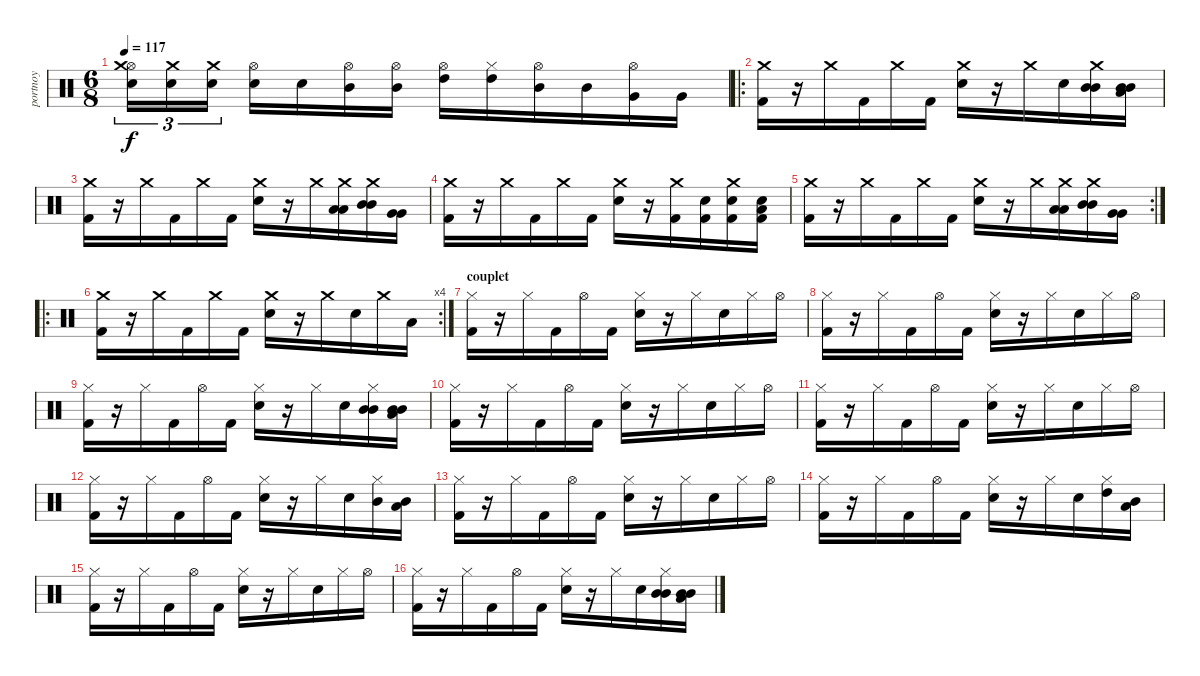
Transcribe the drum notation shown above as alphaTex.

\track ("portnoy" "portnoy") {instrument percussion}
\staff {score}
\articulation defaults
\ts (6 8)
\tempo 117
\clef neutral
\ks c
("Hi-Hat (open)" "Crash medium (hit)" "Snare (hit) 2").16{tu (3 2) dy f} ("Crash medium (hit)" "Snare (hit) 2").16{tu (3 2)} ("Crash medium (hit)" "Snare (hit) 2").16{tu (3 2)} ("Hi-Hat (open)" "Electric Snare (hit)").16 "Electric Snare (hit)".16 ("Hi-Hat (open)" "Mid Tom (hit)").16 ("Hi-Hat (open)" "Mid Tom (hit)").16 ("Hi-Hat (open)" "High Tom (hit)").16 ("Hi-Hat (closed)" "High Tom (hit)").16 ("Hi-Hat (open)" "Mid Tom (hit)").16 "Mid Tom (hit)".16 ("Hi-Hat (open)" "Very Low Tom (hit)").16 "Very Low Tom (hit)".16 |
\ro
("Crash medium (hit)" "Kick (hit) 2").16 r.16 "Crash medium (hit)".16 "Kick (hit) 2".16 "Crash medium (hit)".16 "Kick (hit) 2".16 ("Crash medium (hit)" "Electric Snare (hit)").16 r.16 "Crash medium (hit)".16 "Electric Snare (hit)".16 ("Mid Tom (hit)" "Mid Tom (hit)" "Crash medium (hit)").16 ("Mid Tom (hit)" "Mid Tom (hit)" "Low Tom (hit)").16 |
("Crash medium (hit)" "Kick (hit) 2").16 r.16 "Crash medium (hit)".16 "Kick (hit) 2".16 "Crash medium (hit)".16 "Kick (hit) 2".16 ("Crash medium (hit)" "Electric Snare (hit)").16 r.16 "Crash medium (hit)".16 ("Low Tom (hit)" "Low Tom (hit)" "Crash medium (hit)").16 ("Mid Tom (hit)" "Mid Tom (hit)" "Crash medium (hit)").16 ("Very Low Tom (hit)" "Very Low Tom (hit)").16 |
("Crash medium (hit)" "Kick (hit) 2").16 r.16 "Crash medium (hit)".16 "Kick (hit) 2".16 "Crash medium (hit)".16 "Kick (hit) 2".16 ("Crash medium (hit)" "Electric Snare (hit)").16 r.16 ("Crash medium (hit)" "Kick (hit) 2").16 ("Electric Snare (hit)" "Kick (hit) 2").16 ("Crash medium (hit)" "Electric Snare (hit)" "Kick (hit) 2").16 ("Low Tom (hit)" "Electric Snare (hit)" "Kick (hit) 2").16 |
\rc 2
("Crash medium (hit)" "Kick (hit) 2").16 r.16 "Crash medium (hit)".16 "Kick (hit) 2".16 "Crash medium (hit)".16 "Kick (hit) 2".16 ("Crash medium (hit)" "Electric Snare (hit)").16 r.16 "Crash medium (hit)".16 ("Low Tom (hit)" "Low Tom (hit)" "Crash medium (hit)").16 ("Mid Tom (hit)" "Mid Tom (hit)" "Crash medium (hit)").16 ("Very Low Tom (hit)" "Very Low Tom (hit)").16 |
\ro
\rc 4
("Crash medium (hit)" "Kick (hit) 2").16 r.16 "Crash medium (hit)".16 "Kick (hit) 2".16 "Crash medium (hit)".16 "Kick (hit) 2".16 ("Crash medium (hit)" "Electric Snare (hit)").16 r.16 "Crash medium (hit)".16 "Electric Snare (hit)".16 "Crash medium (hit)".16 "Low Tom (hit)".16 |
\section ("" "couplet")
("Hi-Hat (closed)" "Kick (hit) 2").16 r.16 "Hi-Hat (closed)".16 "Kick (hit) 2".16 "Hi-Hat (open)".16 "Kick (hit) 2".16 ("Hi-Hat (closed)" "Electric Snare (hit)").16 r.16 "Hi-Hat (closed)".16 "Electric Snare (hit)".16 "Hi-Hat (closed)".16 "Hi-Hat (open)".16 |
("Hi-Hat (closed)" "Kick (hit) 2").16 r.16 "Hi-Hat (closed)".16 "Kick (hit) 2".16 "Hi-Hat (open)".16 "Kick (hit) 2".16 ("Hi-Hat (closed)" "Electric Snare (hit)").16 r.16 "Hi-Hat (closed)".16 "Electric Snare (hit)".16 "Hi-Hat (closed)".16 "Hi-Hat (open)".16 |
("Hi-Hat (closed)" "Kick (hit) 2").16 r.16 "Hi-Hat (closed)".16 "Kick (hit) 2".16 "Hi-Hat (open)".16 "Kick (hit) 2".16 ("Hi-Hat (closed)" "Electric Snare (hit)").16 r.16 "Hi-Hat (closed)".16 "Electric Snare (hit)".16 ("Mid Tom (hit)" "Mid Tom (hit)" "Hi-Hat (closed)").16 ("Mid Tom (hit)" "Mid Tom (hit)" "Low Tom (hit)").16 |
("Hi-Hat (closed)" "Kick (hit) 2").16 r.16 "Hi-Hat (closed)".16 "Kick (hit) 2".16 "Hi-Hat (open)".16 "Kick (hit) 2".16 ("Hi-Hat (closed)" "Electric Snare (hit)").16 r.16 "Hi-Hat (closed)".16 "Electric Snare (hit)".16 "Hi-Hat (closed)".16 "Hi-Hat (open)".16 |
("Hi-Hat (closed)" "Kick (hit) 2").16 r.16 "Hi-Hat (closed)".16 "Kick (hit) 2".16 "Hi-Hat (open)".16 "Kick (hit) 2".16 ("Hi-Hat (closed)" "Electric Snare (hit)").16 r.16 "Hi-Hat (closed)".16 "Electric Snare (hit)".16 "Hi-Hat (closed)".16 "Hi-Hat (open)".16 |
("Hi-Hat (closed)" "Kick (hit) 2").16 r.16 "Hi-Hat (closed)".16 "Kick (hit) 2".16 "Hi-Hat (open)".16 "Kick (hit) 2".16 ("Hi-Hat (closed)" "Electric Snare (hit)").16 r.16 "Hi-Hat (closed)".16 "Electric Snare (hit)".16 ("Mid Tom (hit)" "Hi-Hat (closed)").16 ("Mid Tom (hit)" "Low Tom (hit)").16 |
("Hi-Hat (closed)" "Kick (hit) 2").16 r.16 "Hi-Hat (closed)".16 "Kick (hit) 2".16 "Hi-Hat (open)".16 "Kick (hit) 2".16 ("Hi-Hat (closed)" "Electric Snare (hit)").16 r.16 "Hi-Hat (closed)".16 "Electric Snare (hit)".16 "Hi-Hat (closed)".16 "Hi-Hat (open)".16 |
("Hi-Hat (closed)" "Kick (hit) 2").16 r.16 "Hi-Hat (closed)".16 "Kick (hit) 2".16 "Hi-Hat (open)".16 "Kick (hit) 2".16 ("Hi-Hat (closed)" "Electric Snare (hit)").16 r.16 "Hi-Hat (closed)".16 "Electric Snare (hit)".16 ("High Tom (hit)" "Hi-Hat (closed)").16 ("Mid Tom (hit)" "Low Tom (hit)").16 |
("Hi-Hat (closed)" "Kick (hit) 2").16 r.16 "Hi-Hat (closed)".16 "Kick (hit) 2".16 "Hi-Hat (open)".16 "Kick (hit) 2".16 ("Hi-Hat (closed)" "Electric Snare (hit)").16 r.16 "Hi-Hat (closed)".16 "Electric Snare (hit)".16 "Hi-Hat (closed)".16 "Hi-Hat (open)".16 |
("Hi-Hat (closed)" "Kick (hit) 2").16 r.16 "Hi-Hat (closed)".16 "Kick (hit) 2".16 "Hi-Hat (open)".16 "Kick (hit) 2".16 ("Hi-Hat (closed)" "Electric Snare (hit)").16 r.16 "Hi-Hat (closed)".16 "Electric Snare (hit)".16 ("Mid Tom (hit)" "Mid Tom (hit)" "Hi-Hat (closed)").16 ("Mid Tom (hit)" "Mid Tom (hit)" "Low Tom (hit)").16
